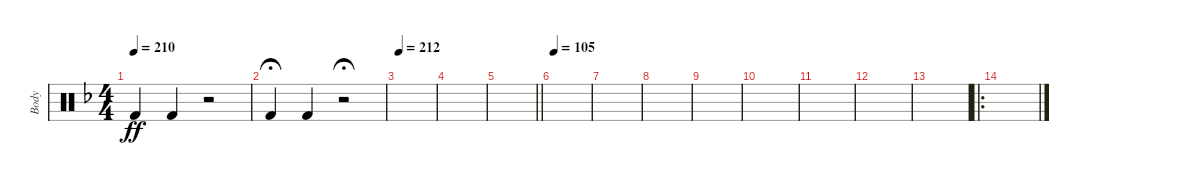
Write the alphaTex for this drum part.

\defaultSystemsLayout 2
\bracketExtendMode groupsimilarinstruments
\otherSystemsTrackNameOrientation horizontal
\track ("Body" "Body") {instrument percussion}
\staff {score}
\articulation defaults
\ts (4 4)
\scale
1.05422
\tempo 210
\accidentals auto
\clef neutral
\ottava regular
\simile none
\ks dminor "Kick (hit) 2"{acc forcenatural}.4{dy ff beam Up} "Kick (hit) 2"{acc forcenatural}.4{beam Up}
r.2{beam Up} |
\scale
0.945776 "Kick (hit) 2"{acc forcenatural}.4{fermata (medium 0.5) beam Up} "Kick (hit) 2"{acc forcenatural}.4{beam Up} r.2{fermata (medium 1) beam Up} |
\scale
1.05422
\tempo 212
\scale
0.333333 |
\scale
0.945776
\scale
0.333333 |
\scale
1.05272
\scale
0.333333
\barLineRight lightlight
|
\scale
0.947282
\tempo 105
\scale
0.333333 |
\scale
1.04804
\scale
0.333333 |
\scale
0.951961
\scale
0.333333 |
\scale
1.04804
\scale
0.333333 |
\scale
0.951961
\scale
0.333333 |
\scale
1.04804
\scale
0.333333 |
\scale
0.951961
\scale
0.333333 |
\scale
1.04286
\scale
0.333333 |
\ro
\scale
0.957141
\scale
0.333333 |
\scale
1.04804
\scale
0.333333 |
\scale
0.951961
\scale
0.333333
